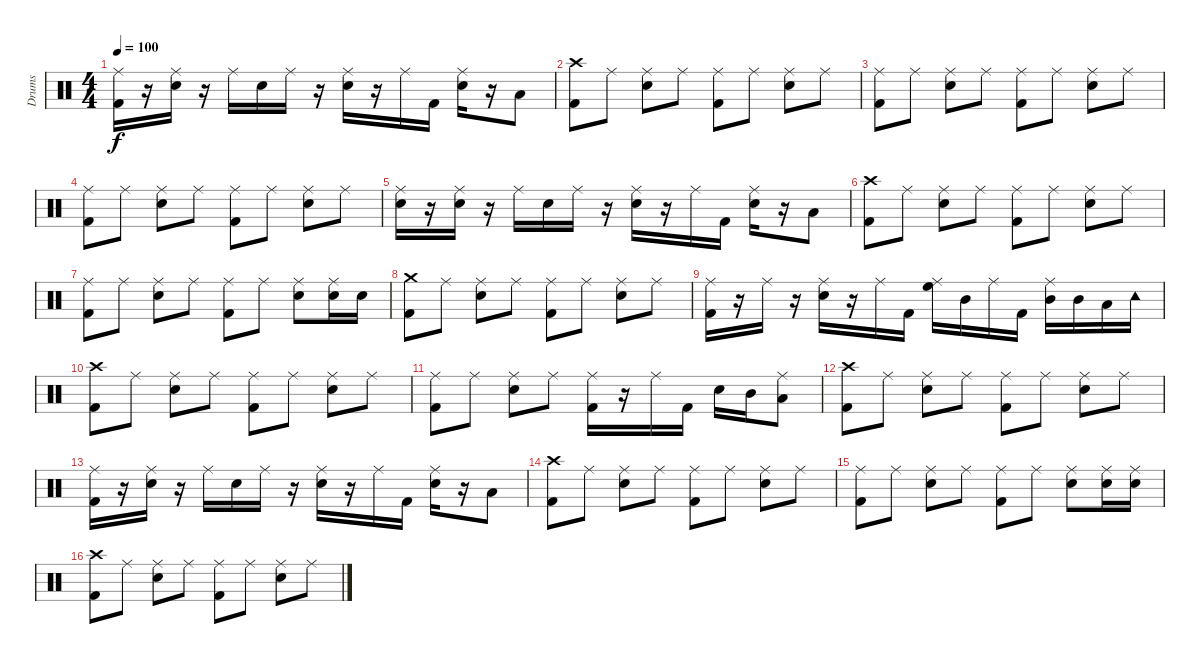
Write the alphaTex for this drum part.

\track ("Drums" "Drums") {instrument percussion}
\staff {score}
\articulation defaults
\ts (4 4)
\tempo 100
\clef neutral
\ks c
("Ride (middle)" "Kick (hit) 2").16{dy f} r.16 ("Ride (middle)" "Snare (hit) 2").16 r.16 "Ride (middle)".16 "Snare (hit) 2".16 "Ride (middle)".16 r.16 ("Ride (middle)" "Snare (hit) 2").16 r.16 "Ride (middle)".16 "Kick (hit) 2".16 ("Ride (middle)" "Snare (hit) 2").16 r.16 "Low Tom (hit)".8 |
("Crash high (hit)" "Kick (hit) 2").8 "Ride (middle)".8 ("Ride (middle)" "Snare (hit) 2").8 "Ride (middle)".8 ("Ride (middle)" "Kick (hit) 2").8 "Ride (middle)".8 ("Ride (middle)" "Snare (hit) 2").8 "Ride (middle)".8 |
("Ride (middle)" "Kick (hit) 2").8 "Ride (middle)".8 ("Ride (middle)" "Snare (hit) 2").8 "Ride (middle)".8 ("Ride (middle)" "Kick (hit) 2").8 "Ride (middle)".8 ("Ride (middle)" "Snare (hit) 2").8 "Ride (middle)".8 |
("Ride (middle)" "Kick (hit) 2").8 "Ride (middle)".8 ("Ride (middle)" "Snare (hit) 2").8 "Ride (middle)".8 ("Ride (middle)" "Kick (hit) 2").8 "Ride (middle)".8 ("Ride (middle)" "Snare (hit) 2").8 "Ride (middle)".8 |
("Ride (middle)" "Snare (hit) 2").16 r.16 ("Ride (middle)" "Snare (hit) 2").16 r.16 "Ride (middle)".16 "Snare (hit) 2".16 "Ride (middle)".16 r.16 ("Ride (middle)" "Snare (hit) 2").16 r.16 "Ride (middle)".16 "Kick (hit) 2".16 ("Ride (middle)" "Snare (hit) 2").16 r.16 "Low Tom (hit)".8 |
("Crash high (hit)" "Kick (hit) 2").8 "Ride (middle)".8 ("Ride (middle)" "Snare (hit) 2").8 "Ride (middle)".8 ("Ride (middle)" "Kick (hit) 2").8 "Ride (middle)".8 ("Ride (middle)" "Snare (hit) 2").8 "Ride (middle)".8 |
("Ride (middle)" "Kick (hit) 2").8 "Ride (middle)".8 ("Ride (middle)" "Snare (hit) 2").8 "Ride (middle)".8 ("Ride (middle)" "Kick (hit) 2").8 "Ride (middle)".8 ("Ride (middle)" "Snare (hit) 2").8 ("Ride (middle)" "Snare (hit) 2").16 "Snare (hit) 2".16 |
("Crash medium (hit)" "Kick (hit) 2").8 "Ride (middle)".8 ("Ride (middle)" "Snare (hit) 2").8 "Ride (middle)".8 ("Ride (middle)" "Kick (hit) 2").8 "Ride (middle)".8 ("Ride (middle)" "Snare (hit) 2").8 "Ride (middle)".8 |
("Ride (middle)" "Kick (hit) 2").16 r.16 "Ride (middle)".16 r.16 ("Ride (middle)" "Snare (hit) 2").16 r.16 "Ride (middle)".16 "Kick (hit) 2".16 ("Ride (middle)" "High Floor Tom (hit)").16 "Mid Tom (hit)".16 "Ride (middle)".16 "Kick (hit) 2".16 ("Ride (middle)" "Mid Tom (hit)").16 "Mid Tom (hit)".16 "Low Tom (hit)".16 "Tambourine (hit)".16 |
("Crash high (hit)" "Kick (hit) 2").8 "Ride (middle)".8 ("Ride (middle)" "Snare (hit) 2").8 "Ride (middle)".8 ("Ride (middle)" "Kick (hit) 2").8 "Ride (middle)".8 ("Ride (middle)" "Snare (hit) 2").8 "Ride (middle)".8 |
("Ride (middle)" "Kick (hit) 2").8 "Ride (middle)".8 ("Ride (middle)" "Snare (hit) 2").8 "Ride (middle)".8 ("Ride (middle)" "Kick (hit) 2").16 r.16 "Ride (middle)".16 "Kick (hit) 2".16 "Snare (hit) 2".16 "Mid Tom (hit)".16 ("Ride (middle)" "Low Tom (hit)").8 |
("Crash high (hit)" "Kick (hit) 2").8 "Ride (middle)".8 ("Ride (middle)" "Snare (hit) 2").8 "Ride (middle)".8 ("Ride (middle)" "Kick (hit) 2").8 "Ride (middle)".8 ("Ride (middle)" "Snare (hit) 2").8 "Ride (middle)".8 |
("Ride (middle)" "Kick (hit) 2").16 r.16 ("Ride (middle)" "Snare (hit) 2").16 r.16 "Ride (middle)".16 "Snare (hit) 2".16 "Ride (middle)".16 r.16 ("Ride (middle)" "Snare (hit) 2").16 r.16 "Ride (middle)".16 "Kick (hit) 2".16 ("Ride (middle)" "Snare (hit) 2").16 r.16 "Low Tom (hit)".8 |
("Crash high (hit)" "Kick (hit) 2").8 "Ride (middle)".8 ("Ride (middle)" "Snare (hit) 2").8 "Ride (middle)".8 ("Ride (middle)" "Kick (hit) 2").8 "Ride (middle)".8 ("Ride (middle)" "Snare (hit) 2").8 "Ride (middle)".8 |
("Ride (middle)" "Kick (hit) 2").8 "Ride (middle)".8 ("Ride (middle)" "Snare (hit) 2").8 "Ride (middle)".8 ("Ride (middle)" "Kick (hit) 2").8 "Ride (middle)".8 ("Ride (middle)" "Snare (hit) 2").8 ("Ride (middle)" "Snare (hit) 2").16 ("Ride (middle)" "Snare (hit) 2").16 |
("Crash high (hit)" "Kick (hit) 2").8 "Ride (middle)".8 ("Ride (middle)" "Snare (hit) 2").8 "Ride (middle)".8 ("Ride (middle)" "Kick (hit) 2").8 "Ride (middle)".8 ("Ride (middle)" "Snare (hit) 2").8 "Ride (middle)".8
